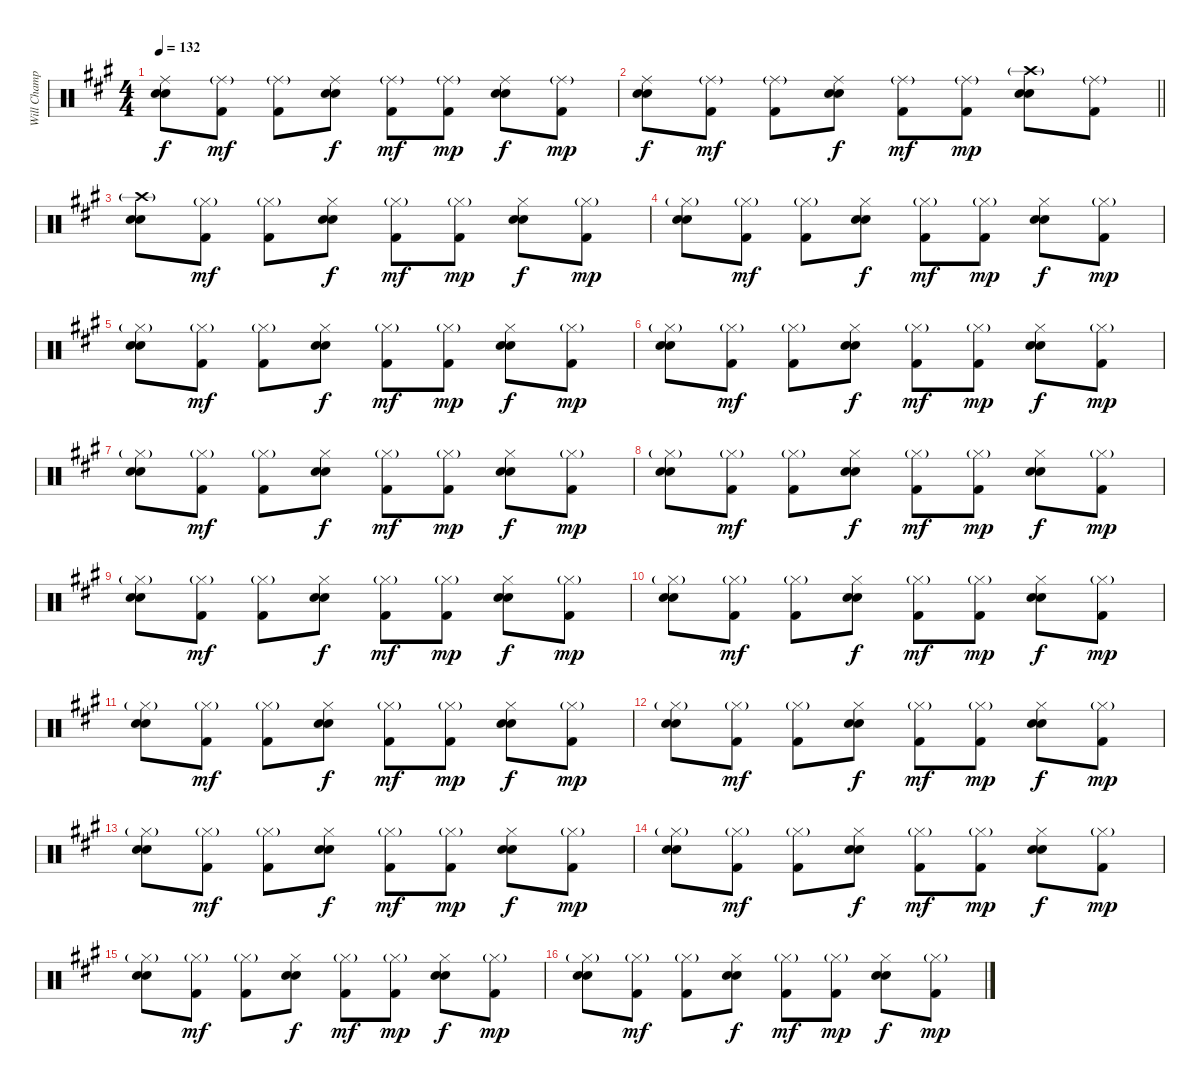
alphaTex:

\track ("Will Champion-Drums(percussion)" "Will Champ") {instrument percussion}
\staff {score}
\articulation defaults
\ts (4 4)
\tempo 132
\clef neutral
\ks a
("Ride (middle)" "Electric Snare (hit)" "Snare (hit) 2").8{dy f} ("Ride (middle)"{g} "Kick (hit) 2").8{dy mf} ("Ride (middle)"{g} "Kick (hit) 2").8 ("Ride (middle)" "Electric Snare (hit)" "Snare (hit) 2").8{dy f} ("Ride (middle)"{g} "Kick (hit) 2").8{dy mf} ("Ride (middle)"{g} "Kick (hit) 2").8{dy mp} ("Ride (middle)" "Electric Snare (hit)" "Snare (hit) 2").8{dy f} ("Ride (middle)"{g} "Kick (hit) 2").8{dy mp} |
\barLineRight lightlight
("Ride (middle)" "Electric Snare (hit)" "Snare (hit) 2").8{dy f} ("Ride (middle)"{g} "Kick (hit) 2").8{dy mf} ("Ride (middle)"{g} "Kick (hit) 2").8 ("Ride (middle)" "Electric Snare (hit)" "Snare (hit) 2").8{dy f} ("Ride (middle)"{g} "Kick (hit) 2").8{dy mf} ("Ride (middle)"{g} "Kick (hit) 2").8{dy mp} ("Crash high (hit)"{g} "Electric Snare (hit)" "Snare (hit) 2").8 ("Ride (middle)"{g} "Kick (hit) 2").8 |
("Crash high (hit)"{g} "Electric Snare (hit)" "Snare (hit) 2").8 ("Hi-Hat (closed)"{g} "Kick (hit) 2").8{dy mf} ("Hi-Hat (closed)"{g} "Kick (hit) 2").8 ("Hi-Hat (closed)" "Electric Snare (hit)" "Snare (hit) 2").8{dy f} ("Hi-Hat (closed)"{g} "Kick (hit) 2").8{dy mf} ("Hi-Hat (closed)"{g} "Kick (hit) 2").8{dy mp} ("Hi-Hat (closed)" "Electric Snare (hit)" "Snare (hit) 2").8{dy f} ("Hi-Hat (closed)"{g} "Kick (hit) 2").8{dy mp} |
("Hi-Hat (closed)"{g} "Electric Snare (hit)" "Snare (hit) 2").8 ("Hi-Hat (closed)"{g} "Kick (hit) 2").8{dy mf} ("Hi-Hat (closed)"{g} "Kick (hit) 2").8 ("Hi-Hat (closed)" "Electric Snare (hit)" "Snare (hit) 2").8{dy f} ("Hi-Hat (closed)"{g} "Kick (hit) 2").8{dy mf} ("Hi-Hat (closed)"{g} "Kick (hit) 2").8{dy mp} ("Hi-Hat (closed)" "Electric Snare (hit)" "Snare (hit) 2").8{dy f} ("Hi-Hat (closed)"{g} "Kick (hit) 2").8{dy mp} |
("Hi-Hat (closed)"{g} "Electric Snare (hit)" "Snare (hit) 2").8 ("Hi-Hat (closed)"{g} "Kick (hit) 2").8{dy mf} ("Hi-Hat (closed)"{g} "Kick (hit) 2").8 ("Hi-Hat (closed)" "Electric Snare (hit)" "Snare (hit) 2").8{dy f} ("Hi-Hat (closed)"{g} "Kick (hit) 2").8{dy mf} ("Hi-Hat (closed)"{g} "Kick (hit) 2").8{dy mp} ("Hi-Hat (closed)" "Electric Snare (hit)" "Snare (hit) 2").8{dy f} ("Hi-Hat (closed)"{g} "Kick (hit) 2").8{dy mp} |
("Hi-Hat (closed)"{g} "Electric Snare (hit)" "Snare (hit) 2").8 ("Hi-Hat (closed)"{g} "Kick (hit) 2").8{dy mf} ("Hi-Hat (closed)"{g} "Kick (hit) 2").8 ("Hi-Hat (closed)" "Electric Snare (hit)" "Snare (hit) 2").8{dy f} ("Hi-Hat (closed)"{g} "Kick (hit) 2").8{dy mf} ("Hi-Hat (closed)"{g} "Kick (hit) 2").8{dy mp} ("Hi-Hat (closed)" "Electric Snare (hit)" "Snare (hit) 2").8{dy f} ("Hi-Hat (closed)"{g} "Kick (hit) 2").8{dy mp} |
("Hi-Hat (closed)"{g} "Electric Snare (hit)" "Snare (hit) 2").8 ("Hi-Hat (closed)"{g} "Kick (hit) 2").8{dy mf} ("Hi-Hat (closed)"{g} "Kick (hit) 2").8 ("Hi-Hat (closed)" "Electric Snare (hit)" "Snare (hit) 2").8{dy f} ("Hi-Hat (closed)"{g} "Kick (hit) 2").8{dy mf} ("Hi-Hat (closed)"{g} "Kick (hit) 2").8{dy mp} ("Hi-Hat (closed)" "Electric Snare (hit)" "Snare (hit) 2").8{dy f} ("Hi-Hat (closed)"{g} "Kick (hit) 2").8{dy mp} |
("Hi-Hat (closed)"{g} "Electric Snare (hit)" "Snare (hit) 2").8 ("Hi-Hat (closed)"{g} "Kick (hit) 2").8{dy mf} ("Hi-Hat (closed)"{g} "Kick (hit) 2").8 ("Hi-Hat (closed)" "Electric Snare (hit)" "Snare (hit) 2").8{dy f} ("Hi-Hat (closed)"{g} "Kick (hit) 2").8{dy mf} ("Hi-Hat (closed)"{g} "Kick (hit) 2").8{dy mp} ("Hi-Hat (closed)" "Electric Snare (hit)" "Snare (hit) 2").8{dy f} ("Hi-Hat (closed)"{g} "Kick (hit) 2").8{dy mp} |
("Hi-Hat (closed)"{g} "Electric Snare (hit)" "Snare (hit) 2").8 ("Hi-Hat (closed)"{g} "Kick (hit) 2").8{dy mf} ("Hi-Hat (closed)"{g} "Kick (hit) 2").8 ("Hi-Hat (closed)" "Electric Snare (hit)" "Snare (hit) 2").8{dy f} ("Hi-Hat (closed)"{g} "Kick (hit) 2").8{dy mf} ("Hi-Hat (closed)"{g} "Kick (hit) 2").8{dy mp} ("Hi-Hat (closed)" "Electric Snare (hit)" "Snare (hit) 2").8{dy f} ("Hi-Hat (closed)"{g} "Kick (hit) 2").8{dy mp} |
("Hi-Hat (closed)"{g} "Electric Snare (hit)" "Snare (hit) 2").8 ("Hi-Hat (closed)"{g} "Kick (hit) 2").8{dy mf} ("Hi-Hat (closed)"{g} "Kick (hit) 2").8 ("Hi-Hat (closed)" "Electric Snare (hit)" "Snare (hit) 2").8{dy f} ("Hi-Hat (closed)"{g} "Kick (hit) 2").8{dy mf} ("Hi-Hat (closed)"{g} "Kick (hit) 2").8{dy mp} ("Hi-Hat (closed)" "Electric Snare (hit)" "Snare (hit) 2").8{dy f} ("Hi-Hat (closed)"{g} "Kick (hit) 2").8{dy mp} |
("Hi-Hat (closed)"{g} "Electric Snare (hit)" "Snare (hit) 2").8 ("Hi-Hat (closed)"{g} "Kick (hit) 2").8{dy mf} ("Hi-Hat (closed)"{g} "Kick (hit) 2").8 ("Hi-Hat (closed)" "Electric Snare (hit)" "Snare (hit) 2").8{dy f} ("Hi-Hat (closed)"{g} "Kick (hit) 2").8{dy mf} ("Hi-Hat (closed)"{g} "Kick (hit) 2").8{dy mp} ("Hi-Hat (closed)" "Electric Snare (hit)" "Snare (hit) 2").8{dy f} ("Hi-Hat (closed)"{g} "Kick (hit) 2").8{dy mp} |
("Hi-Hat (closed)"{g} "Electric Snare (hit)" "Snare (hit) 2").8 ("Hi-Hat (closed)"{g} "Kick (hit) 2").8{dy mf} ("Hi-Hat (closed)"{g} "Kick (hit) 2").8 ("Hi-Hat (closed)" "Electric Snare (hit)" "Snare (hit) 2").8{dy f} ("Hi-Hat (closed)"{g} "Kick (hit) 2").8{dy mf} ("Hi-Hat (closed)"{g} "Kick (hit) 2").8{dy mp} ("Hi-Hat (closed)" "Electric Snare (hit)" "Snare (hit) 2").8{dy f} ("Hi-Hat (closed)"{g} "Kick (hit) 2").8{dy mp} |
("Hi-Hat (closed)"{g} "Electric Snare (hit)" "Snare (hit) 2").8 ("Hi-Hat (closed)"{g} "Kick (hit) 2").8{dy mf} ("Hi-Hat (closed)"{g} "Kick (hit) 2").8 ("Hi-Hat (closed)" "Electric Snare (hit)" "Snare (hit) 2").8{dy f} ("Hi-Hat (closed)"{g} "Kick (hit) 2").8{dy mf} ("Hi-Hat (closed)"{g} "Kick (hit) 2").8{dy mp} ("Hi-Hat (closed)" "Electric Snare (hit)" "Snare (hit) 2").8{dy f} ("Hi-Hat (closed)"{g} "Kick (hit) 2").8{dy mp} |
("Hi-Hat (closed)"{g} "Electric Snare (hit)" "Snare (hit) 2").8 ("Hi-Hat (closed)"{g} "Kick (hit) 2").8{dy mf} ("Hi-Hat (closed)"{g} "Kick (hit) 2").8 ("Hi-Hat (closed)" "Electric Snare (hit)" "Snare (hit) 2").8{dy f} ("Hi-Hat (closed)"{g} "Kick (hit) 2").8{dy mf} ("Hi-Hat (closed)"{g} "Kick (hit) 2").8{dy mp} ("Hi-Hat (closed)" "Electric Snare (hit)" "Snare (hit) 2").8{dy f} ("Hi-Hat (closed)"{g} "Kick (hit) 2").8{dy mp} |
("Hi-Hat (closed)"{g} "Electric Snare (hit)" "Snare (hit) 2").8 ("Hi-Hat (closed)"{g} "Kick (hit) 2").8{dy mf} ("Hi-Hat (closed)"{g} "Kick (hit) 2").8 ("Hi-Hat (closed)" "Electric Snare (hit)" "Snare (hit) 2").8{dy f} ("Hi-Hat (closed)"{g} "Kick (hit) 2").8{dy mf} ("Hi-Hat (closed)"{g} "Kick (hit) 2").8{dy mp} ("Hi-Hat (closed)" "Electric Snare (hit)" "Snare (hit) 2").8{dy f} ("Hi-Hat (closed)"{g} "Kick (hit) 2").8{dy mp} |
("Hi-Hat (closed)"{g} "Electric Snare (hit)" "Snare (hit) 2").8 ("Hi-Hat (closed)"{g} "Kick (hit) 2").8{dy mf} ("Hi-Hat (closed)"{g} "Kick (hit) 2").8 ("Hi-Hat (closed)" "Electric Snare (hit)" "Snare (hit) 2").8{dy f} ("Hi-Hat (closed)"{g} "Kick (hit) 2").8{dy mf} ("Hi-Hat (closed)"{g} "Kick (hit) 2").8{dy mp} ("Hi-Hat (closed)" "Electric Snare (hit)" "Snare (hit) 2").8{dy f} ("Hi-Hat (closed)"{g} "Kick (hit) 2").8{dy mp}
